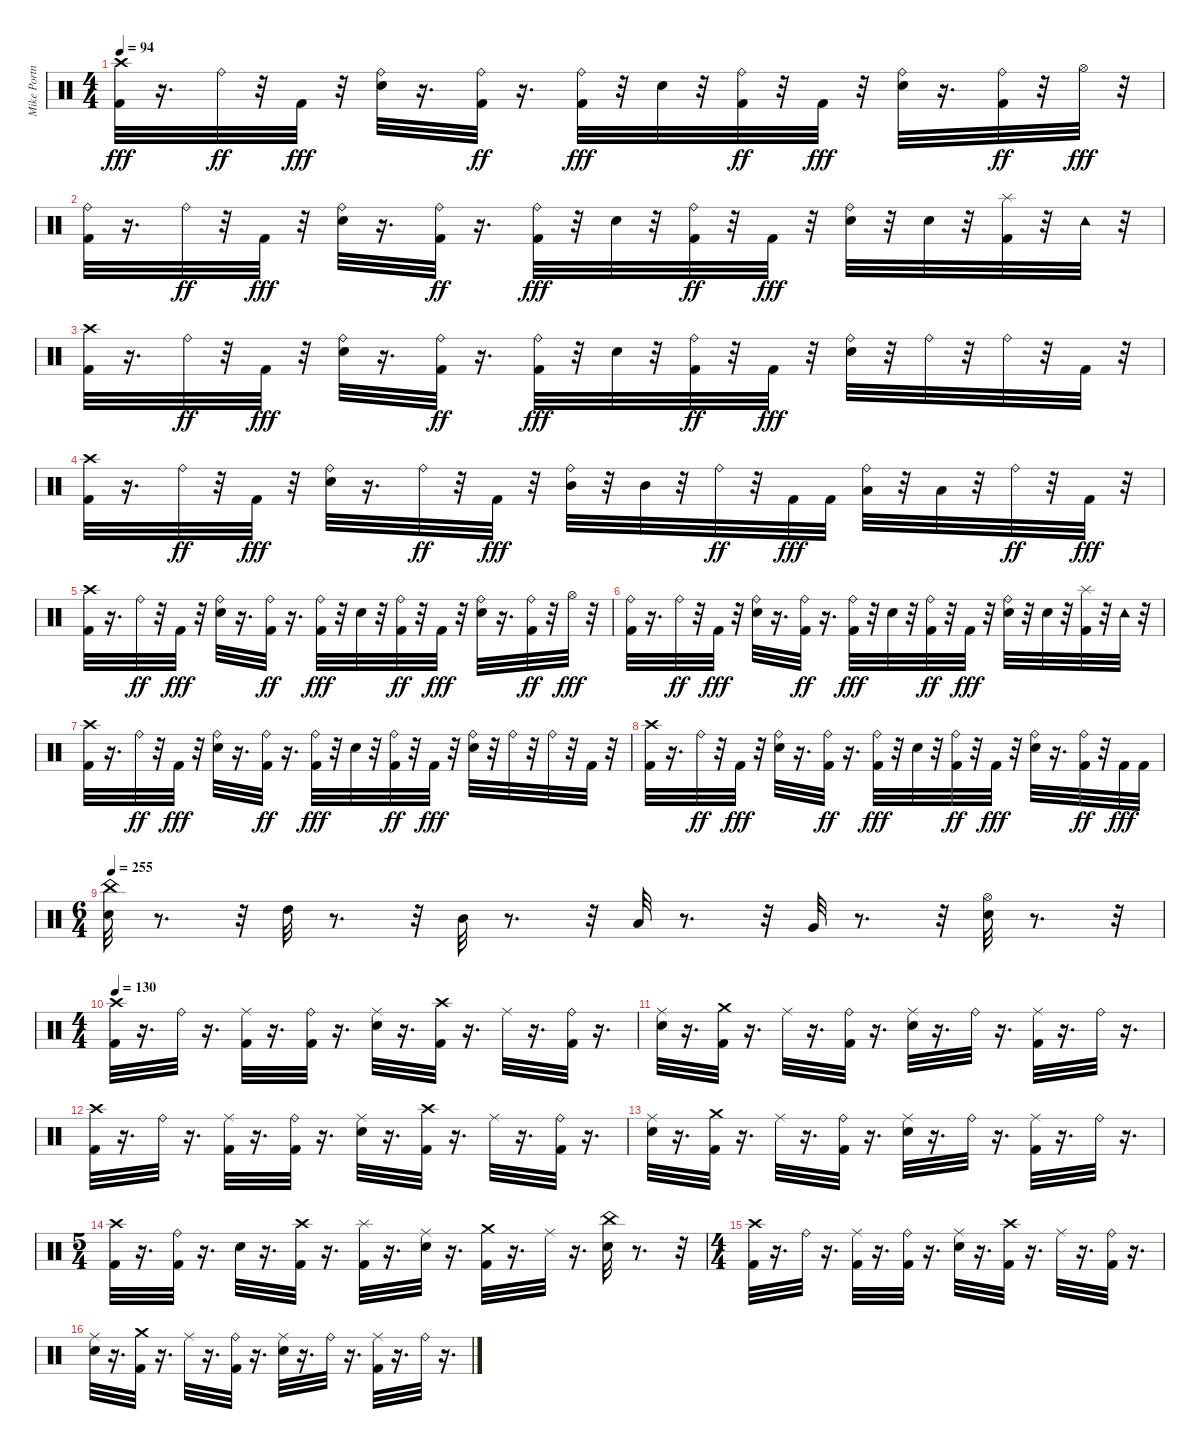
\track ("Mike Portnoy" "Mike Portn") {instrument percussion}
\staff {score}
\articulation defaults
\ts (4 4)
\tempo 94
\clef neutral
\ks c
("Kick (hit) 2" "Crash high (hit)").32{dy fff} r.16{d} "Ride (bell)".32{dy ff} r.32 "Kick (hit) 2".32{dy fff} r.32 ("Ride (bell)" "Snare (hit) 2").32 r.16{d} ("Kick (hit) 2" "Ride (bell)").32{dy ff} r.16{d} ("Kick (hit) 2" "Ride (bell)").32{dy fff} r.32 "Snare (hit) 2".32 r.32 ("Kick (hit) 2" "Ride (bell)").32{dy ff} r.32 "Kick (hit) 2".32{dy fff} r.32 ("Ride (bell)" "Snare (hit) 2").32 r.16{d} ("Kick (hit) 2" "Ride (bell)").32{dy ff} r.32 "Hi-Hat (open)".32{dy fff} r.32 |
("Kick (hit) 2" "Ride (bell)").32 r.16{d} "Ride (bell)".32{dy ff} r.32 "Kick (hit) 2".32{dy fff} r.32 ("Ride (bell)" "Snare (hit) 2").32 r.16{d} ("Kick (hit) 2" "Ride (bell)").32{dy ff} r.16{d} ("Kick (hit) 2" "Ride (bell)").32{dy fff} r.32 "Snare (hit) 2".32 r.32 ("Kick (hit) 2" "Ride (bell)").32{dy ff} r.32 "Kick (hit) 2".32{dy fff} r.32 ("Ride (bell)" "Snare (hit) 2").32 r.32 "Snare (hit) 2".32 r.32 ("Kick (hit) 2" "Splash (hit)").32 r.32 "Tambourine (hit)".32 r.32 |
("Kick (hit) 2" "Crash high (hit)").32 r.16{d} "Ride (bell)".32{dy ff} r.32 "Kick (hit) 2".32{dy fff} r.32 ("Ride (bell)" "Snare (hit) 2").32 r.16{d} ("Kick (hit) 2" "Ride (bell)").32{dy ff} r.16{d} ("Kick (hit) 2" "Ride (bell)").32{dy fff} r.32 "Snare (hit) 2".32 r.32 ("Kick (hit) 2" "Ride (bell)").32{dy ff} r.32 "Kick (hit) 2".32{dy fff} r.32 ("Ride (bell)" "Snare (hit) 2").32 r.32 "Ride (bell)".32 r.32 "Ride (bell)".32 r.32 "Kick (hit) 2".32 r.32 |
("Kick (hit) 2" "Crash high (hit)").32 r.16{d} "Ride (bell)".32{dy ff} r.32 "Kick (hit) 2".32{dy fff} r.32 ("Ride (bell)" "Snare (hit) 2").32 r.16{d} "Ride (bell)".32{dy ff} r.32 "Kick (hit) 2".32{dy fff} r.32 ("Ride (bell)" "Mid Tom (hit)").32 r.32 "Mid Tom (hit)".32 r.32 "Ride (bell)".32{dy ff} r.32 "Kick (hit) 2".32{dy fff} "Kick (hit) 2".32 ("Ride (bell)" "Low Tom (hit)").32 r.32 "Low Tom (hit)".32 r.32 "Ride (bell)".32{dy ff} r.32 "Kick (hit) 2".32{dy fff} r.32 |
("Kick (hit) 2" "Crash high (hit)").32 r.16{d} "Ride (bell)".32{dy ff} r.32 "Kick (hit) 2".32{dy fff} r.32 ("Ride (bell)" "Snare (hit) 2").32 r.16{d} ("Kick (hit) 2" "Ride (bell)").32{dy ff} r.16{d} ("Kick (hit) 2" "Ride (bell)").32{dy fff} r.32 "Snare (hit) 2".32 r.32 ("Kick (hit) 2" "Ride (bell)").32{dy ff} r.32 "Kick (hit) 2".32{dy fff} r.32 ("Ride (bell)" "Snare (hit) 2").32 r.16{d} ("Kick (hit) 2" "Ride (bell)").32{dy ff} r.32 "Hi-Hat (open)".32{dy fff} r.32 |
("Kick (hit) 2" "Ride (bell)").32 r.16{d} "Ride (bell)".32{dy ff} r.32 "Kick (hit) 2".32{dy fff} r.32 ("Ride (bell)" "Snare (hit) 2").32 r.16{d} ("Kick (hit) 2" "Ride (bell)").32{dy ff} r.16{d} ("Kick (hit) 2" "Ride (bell)").32{dy fff} r.32 "Snare (hit) 2".32 r.32 ("Kick (hit) 2" "Ride (bell)").32{dy ff} r.32 "Kick (hit) 2".32{dy fff} r.32 ("Ride (bell)" "Snare (hit) 2").32 r.32 "Snare (hit) 2".32 r.32 ("Kick (hit) 2" "Splash (hit)").32 r.32 "Tambourine (hit)".32 r.32 |
("Kick (hit) 2" "Crash high (hit)").32 r.16{d} "Ride (bell)".32{dy ff} r.32 "Kick (hit) 2".32{dy fff} r.32 ("Ride (bell)" "Snare (hit) 2").32 r.16{d} ("Kick (hit) 2" "Ride (bell)").32{dy ff} r.16{d} ("Kick (hit) 2" "Ride (bell)").32{dy fff} r.32 "Snare (hit) 2".32 r.32 ("Kick (hit) 2" "Ride (bell)").32{dy ff} r.32 "Kick (hit) 2".32{dy fff} r.32 ("Ride (bell)" "Snare (hit) 2").32 r.32 "Ride (bell)".32 r.32 "Ride (bell)".32 r.32 "Kick (hit) 2".32 r.32 |
("Kick (hit) 2" "Crash high (hit)").32 r.16{d} "Ride (bell)".32{dy ff} r.32 "Kick (hit) 2".32{dy fff} r.32 ("Ride (bell)" "Snare (hit) 2").32 r.16{d} ("Kick (hit) 2" "Ride (bell)").32{dy ff} r.16{d} ("Kick (hit) 2" "Ride (bell)").32{dy fff} r.32 "Snare (hit) 2".32 r.32 ("Kick (hit) 2" "Ride (bell)").32{dy ff} r.32 "Kick (hit) 2".32{dy fff} r.32 ("Ride (bell)" "Snare (hit) 2").32 r.16{d} ("Kick (hit) 2" "Ride (bell)").32{dy ff} r.32 "Kick (hit) 2".32{dy fff} "Kick (hit) 2".32 |
\ts (6 4)
\tempo 255
("Snare (hit) 2" "China (hit)").32 r.8{d} r.32 "High Tom (hit)".32 r.8{d} r.32 "Mid Tom (hit)".32 r.8{d} r.32 "Low Tom (hit)".32 r.8{d} r.32 "Very Low Tom (hit)".32 r.8{d} r.32 ("Snare (hit) 2" "Hi-Hat (open)").32 r.8{d} r.32 |
\ts (4 4)
\tempo 130
("Crash high (hit)" "Kick (hit) 2").32 r.16{d} "Ride (bell)".32 r.16{d} ("Kick (hit) 2" "Ride (middle)").32 r.16{d} ("Kick (hit) 2" "Ride (bell)").32 r.16{d} ("Snare (hit) 2" "Ride (middle)").32 r.16{d} ("Crash high (hit)" "Kick (hit) 2").32 r.16{d} "Ride (middle)".32 r.16{d} ("Kick (hit) 2" "Ride (bell)").32 r.16{d} |
("Snare (hit) 2" "Ride (middle)").32 r.16{d} ("Kick (hit) 2" "Crash medium (hit)").32 r.16{d} "Ride (middle)".32 r.16{d} ("Kick (hit) 2" "Ride (bell)").32 r.16{d} ("Snare (hit) 2" "Ride (middle)").32 r.16{d} "Ride (bell)".32 r.16{d} ("Kick (hit) 2" "Ride (middle)").32 r.16{d} "Ride (bell)".32 r.16{d} |
("Crash high (hit)" "Kick (hit) 2").32 r.16{d} "Ride (bell)".32 r.16{d} ("Kick (hit) 2" "Ride (middle)").32 r.16{d} ("Kick (hit) 2" "Ride (bell)").32 r.16{d} ("Snare (hit) 2" "Ride (middle)").32 r.16{d} ("Crash high (hit)" "Kick (hit) 2").32 r.16{d} "Ride (middle)".32 r.16{d} ("Kick (hit) 2" "Ride (bell)").32 r.16{d} |
("Snare (hit) 2" "Ride (middle)").32 r.16{d} ("Kick (hit) 2" "Crash medium (hit)").32 r.16{d} "Ride (middle)".32 r.16{d} ("Kick (hit) 2" "Ride (bell)").32 r.16{d} ("Snare (hit) 2" "Ride (middle)").32 r.16{d} "Ride (bell)".32 r.16{d} ("Kick (hit) 2" "Ride (middle)").32 r.16{d} "Ride (bell)".32 r.16{d} |
\ts (5 4)
("Kick (hit) 2" "Crash high (hit)").32 r.16{d} ("Ride (bell)" "Kick (hit) 2").32 r.16{d} "Snare (hit) 2".32 r.16{d} ("Kick (hit) 2" "Crash high (hit)").32 r.16{d} ("Kick (hit) 2" "Splash (hit)").32 r.16{d} ("Ride (middle)" "Snare (hit) 2").32 r.16{d} ("Kick (hit) 2" "Crash medium (hit)").32 r.16{d} "Ride (middle)".32 r.16{d} ("Snare (hit) 2" "China (hit)").32 r.8{d} r.32 |
\ts (4 4)
("Crash high (hit)" "Kick (hit) 2").32 r.16{d} "Ride (bell)".32 r.16{d} ("Kick (hit) 2" "Ride (middle)").32 r.16{d} ("Kick (hit) 2" "Ride (bell)").32 r.16{d} ("Snare (hit) 2" "Ride (middle)").32 r.16{d} ("Crash high (hit)" "Kick (hit) 2").32 r.16{d} "Ride (middle)".32 r.16{d} ("Kick (hit) 2" "Ride (bell)").32 r.16{d} |
("Snare (hit) 2" "Ride (middle)").32 r.16{d} ("Kick (hit) 2" "Crash medium (hit)").32 r.16{d} "Ride (middle)".32 r.16{d} ("Kick (hit) 2" "Ride (bell)").32 r.16{d} ("Snare (hit) 2" "Ride (middle)").32 r.16{d} "Ride (bell)".32 r.16{d} ("Kick (hit) 2" "Ride (middle)").32 r.16{d} "Ride (bell)".32 r.16{d}
